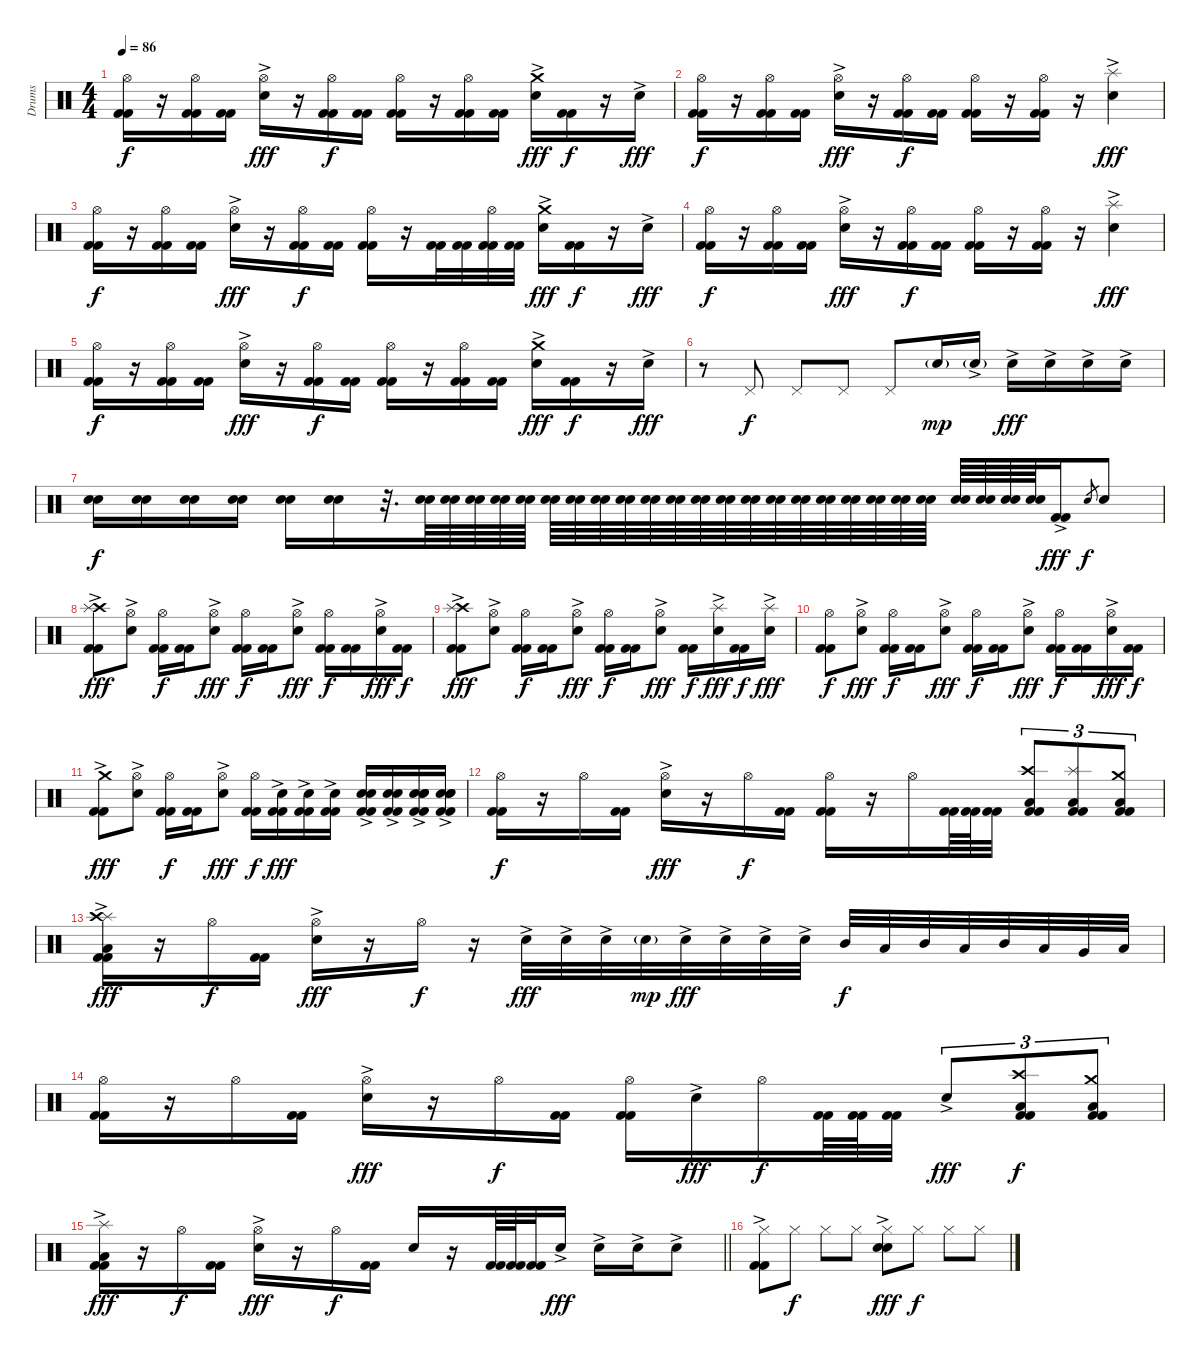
\track ("Drums" "Drums") {instrument percussion}
\staff {score}
\articulation defaults
\ts (4 4)
\tempo 86
\clef neutral
\ks c
("Hi-Hat (open)" "Kick (hit) 2" "Kick (hit) 2").16{dy f} r.16 ("Hi-Hat (open)" "Kick (hit) 2" "Kick (hit) 2").16 ("Kick (hit) 2" "Kick (hit) 2").16 ("Hi-Hat (open)" "Electric Snare (hit)"{ac}).16{dy fff} r.16 ("Hi-Hat (open)" "Kick (hit) 2" "Kick (hit) 2").16{dy f} ("Kick (hit) 2" "Kick (hit) 2").16 ("Hi-Hat (open)" "Kick (hit) 2" "Kick (hit) 2").16 r.16 ("Hi-Hat (open)" "Kick (hit) 2" "Kick (hit) 2").16 ("Kick (hit) 2" "Kick (hit) 2").16 ("Crash medium (hit)"{ac} "Electric Snare (hit)"{ac}).16{dy fff} ("Kick (hit) 2" "Kick (hit) 2").16{dy f} r.16 "Electric Snare (hit)"{ac}.16{dy fff} |
("Hi-Hat (open)" "Kick (hit) 2" "Kick (hit) 2").16{dy f} r.16 ("Hi-Hat (open)" "Kick (hit) 2" "Kick (hit) 2").16 ("Kick (hit) 2" "Kick (hit) 2").16 ("Hi-Hat (open)" "Electric Snare (hit)"{ac}).16{dy fff} r.16 ("Hi-Hat (open)" "Kick (hit) 2" "Kick (hit) 2").16{dy f} ("Kick (hit) 2" "Kick (hit) 2").16 ("Hi-Hat (open)" "Kick (hit) 2" "Kick (hit) 2").16 r.16 ("Hi-Hat (open)" "Kick (hit) 2" "Kick (hit) 2").16 r.16 ("Splash (hit)"{ac} "Electric Snare (hit)"{ac}).4{dy fff} |
("Hi-Hat (open)" "Kick (hit) 2" "Kick (hit) 2").16{dy f} r.16 ("Hi-Hat (open)" "Kick (hit) 2" "Kick (hit) 2").16 ("Kick (hit) 2" "Kick (hit) 2").16 ("Hi-Hat (open)" "Electric Snare (hit)"{ac}).16{dy fff} r.16 ("Hi-Hat (open)" "Kick (hit) 2" "Kick (hit) 2").16{dy f} ("Kick (hit) 2" "Kick (hit) 2").16 ("Hi-Hat (open)" "Kick (hit) 2" "Kick (hit) 2").16 r.16 ("Kick (hit) 2" "Kick (hit) 2").32 ("Kick (hit) 2" "Kick (hit) 2").32 ("Hi-Hat (open)" "Kick (hit) 2" "Kick (hit) 2").32 ("Kick (hit) 2" "Kick (hit) 2").32 ("Crash medium (hit)"{ac} "Electric Snare (hit)"{ac}).16{dy fff} ("Kick (hit) 2" "Kick (hit) 2").16{dy f} r.16 "Electric Snare (hit)"{ac}.16{dy fff} |
("Hi-Hat (open)" "Kick (hit) 2" "Kick (hit) 2").16{dy f} r.16 ("Hi-Hat (open)" "Kick (hit) 2" "Kick (hit) 2").16 ("Kick (hit) 2" "Kick (hit) 2").16 ("Hi-Hat (open)" "Electric Snare (hit)"{ac}).16{dy fff} r.16 ("Hi-Hat (open)" "Kick (hit) 2" "Kick (hit) 2").16{dy f} ("Kick (hit) 2" "Kick (hit) 2").16 ("Hi-Hat (open)" "Kick (hit) 2" "Kick (hit) 2").16 r.16 ("Hi-Hat (open)" "Kick (hit) 2" "Kick (hit) 2").16 r.16 ("Splash (hit)"{ac} "Electric Snare (hit)"{ac}).4{dy fff} |
("Hi-Hat (open)" "Kick (hit) 2" "Kick (hit) 2").16{dy f} r.16 ("Hi-Hat (open)" "Kick (hit) 2" "Kick (hit) 2").16 ("Kick (hit) 2" "Kick (hit) 2").16 ("Hi-Hat (open)" "Electric Snare (hit)"{ac}).16{dy fff} r.16 ("Hi-Hat (open)" "Kick (hit) 2" "Kick (hit) 2").16{dy f} ("Kick (hit) 2" "Kick (hit) 2").16 ("Hi-Hat (open)" "Kick (hit) 2" "Kick (hit) 2").16 r.16 ("Hi-Hat (open)" "Kick (hit) 2" "Kick (hit) 2").16 ("Kick (hit) 2" "Kick (hit) 2").16 ("Crash medium (hit)"{ac} "Electric Snare (hit)"{ac}).16{dy fff} ("Kick (hit) 2" "Kick (hit) 2").16{dy f} r.16 "Electric Snare (hit)"{ac}.16{dy fff} |
r.8 "Pedal Hi-Hat (hit)".8{dy f} "Pedal Hi-Hat (hit)".8 "Pedal Hi-Hat (hit)".8 "Pedal Hi-Hat (hit)".8 "Electric Snare (hit)"{g}.16{dy mp} "Electric Snare (hit)"{g ac}.16 "Electric Snare (hit)"{ac}.16{dy fff} "Electric Snare (hit)"{ac}.16 "Electric Snare (hit)"{ac}.16 "Electric Snare (hit)"{ac}.16 |
("Electric Snare (hit)" "Electric Snare (hit)").16{dy f} ("Electric Snare (hit)" "Electric Snare (hit)").16 ("Electric Snare (hit)" "Electric Snare (hit)").16 ("Electric Snare (hit)" "Electric Snare (hit)").16 ("Electric Snare (hit)" "Electric Snare (hit)").16 ("Electric Snare (hit)" "Electric Snare (hit)").16 r.32{d} ("Electric Snare (hit)" "Electric Snare (hit)").64 ("Electric Snare (hit)" "Electric Snare (hit)").64 ("Electric Snare (hit)" "Electric Snare (hit)").64 ("Electric Snare (hit)" "Electric Snare (hit)").64 ("Electric Snare (hit)" "Electric Snare (hit)").64 ("Electric Snare (hit)" "Electric Snare (hit)").64 ("Electric Snare (hit)" "Electric Snare (hit)").64 ("Electric Snare (hit)" "Electric Snare (hit)").64 ("Electric Snare (hit)" "Electric Snare (hit)").64 ("Electric Snare (hit)" "Electric Snare (hit)").64 ("Electric Snare (hit)" "Electric Snare (hit)").64 ("Electric Snare (hit)" "Electric Snare (hit)").64 ("Electric Snare (hit)" "Electric Snare (hit)").64 ("Electric Snare (hit)" "Electric Snare (hit)").64 ("Electric Snare (hit)" "Electric Snare (hit)").64 ("Electric Snare (hit)" "Electric Snare (hit)").64 ("Electric Snare (hit)" "Electric Snare (hit)").64 ("Electric Snare (hit)" "Electric Snare (hit)").64 ("Electric Snare (hit)" "Electric Snare (hit)").64 ("Electric Snare (hit)" "Electric Snare (hit)").64 ("Electric Snare (hit)" "Electric Snare (hit)").64 ("Electric Snare (hit)" "Electric Snare (hit)").64 ("Electric Snare (hit)" "Electric Snare (hit)").64 ("Electric Snare (hit)" "Electric Snare (hit)").64 ("Electric Snare (hit)" "Electric Snare (hit)").64 ("Kick (hit) 2"{ac} "Kick (hit) 2").16{dy fff} "Electric Snare (hit)".8{gr dy f} "Electric Snare (hit)".8 |
("Crash high (hit)"{ac} "Splash (hit)" "Kick (hit) 2" "Kick (hit) 2").8{dy fff} ("Hi-Hat (open)" "Electric Snare (hit)"{ac}).8 ("Hi-Hat (open)" "Kick (hit) 2" "Kick (hit) 2").16{dy f} ("Kick (hit) 2" "Kick (hit) 2").16 ("Hi-Hat (open)" "Electric Snare (hit)"{ac}).8{dy fff} ("Hi-Hat (open)" "Kick (hit) 2" "Kick (hit) 2").16{dy f} ("Kick (hit) 2" "Kick (hit) 2").16 ("Hi-Hat (open)" "Electric Snare (hit)"{ac}).8{dy fff} ("Hi-Hat (open)" "Kick (hit) 2" "Kick (hit) 2").16{dy f} ("Kick (hit) 2" "Kick (hit) 2").16 ("Hi-Hat (open)" "Electric Snare (hit)"{ac}).16{dy fff} ("Kick (hit) 2" "Kick (hit) 2").16{dy f} |
("Crash high (hit)"{ac} "Splash (hit)" "Kick (hit) 2" "Kick (hit) 2").8{dy fff} ("Hi-Hat (open)" "Electric Snare (hit)"{ac}).8 ("Hi-Hat (open)" "Kick (hit) 2" "Kick (hit) 2").16{dy f} ("Kick (hit) 2" "Kick (hit) 2").16 ("Hi-Hat (open)" "Electric Snare (hit)"{ac}).8{dy fff} ("Hi-Hat (open)" "Kick (hit) 2" "Kick (hit) 2").16{dy f} ("Kick (hit) 2" "Kick (hit) 2").16 ("Hi-Hat (open)" "Electric Snare (hit)"{ac}).8{dy fff} ("Kick (hit) 2" "Kick (hit) 2").16{dy f} ("Splash (hit)" "Electric Snare (hit)"{ac}).16{dy fff} ("Kick (hit) 2" "Kick (hit) 2").16{dy f} ("Splash (hit)" "Electric Snare (hit)"{ac}).16{dy fff} |
("Hi-Hat (open)" "Kick (hit) 2" "Kick (hit) 2").8{dy f} ("Hi-Hat (open)" "Electric Snare (hit)"{ac}).8{dy fff} ("Hi-Hat (open)" "Kick (hit) 2" "Kick (hit) 2").16{dy f} ("Kick (hit) 2" "Kick (hit) 2").16 ("Hi-Hat (open)" "Electric Snare (hit)"{ac}).8{dy fff} ("Hi-Hat (open)" "Kick (hit) 2" "Kick (hit) 2").16{dy f} ("Kick (hit) 2" "Kick (hit) 2").16 ("Hi-Hat (open)" "Electric Snare (hit)"{ac}).8{dy fff} ("Hi-Hat (open)" "Kick (hit) 2" "Kick (hit) 2").16{dy f} ("Kick (hit) 2" "Kick (hit) 2").16 ("Hi-Hat (open)" "Electric Snare (hit)"{ac}).16{dy fff} ("Kick (hit) 2" "Kick (hit) 2").16{dy f} |
("Crash medium (hit)"{ac} "Kick (hit) 2" "Kick (hit) 2").8{dy fff} ("Hi-Hat (open)" "Electric Snare (hit)"{ac}).8 ("Hi-Hat (open)" "Kick (hit) 2" "Kick (hit) 2").16{dy f} ("Kick (hit) 2" "Kick (hit) 2").16 ("Hi-Hat (open)" "Electric Snare (hit)"{ac}).8{dy fff} ("Hi-Hat (open)" "Kick (hit) 2" "Kick (hit) 2").16{dy f} ("Electric Snare (hit)"{ac} "Kick (hit) 2" "Kick (hit) 2").16{dy fff} ("Electric Snare (hit)"{ac} "Kick (hit) 2" "Kick (hit) 2").16 ("Electric Snare (hit)"{ac} "Kick (hit) 2" "Kick (hit) 2").16 ("Electric Snare (hit)"{ac} "Electric Snare (hit)" "Kick (hit) 2" "Kick (hit) 2").16 ("Electric Snare (hit)"{ac} "Electric Snare (hit)" "Kick (hit) 2" "Kick (hit) 2").16 ("Electric Snare (hit)"{ac} "Electric Snare (hit)" "Electric Snare (hit)" "Kick (hit) 2"{ac} "Kick (hit) 2").16 ("Electric Snare (hit)"{ac} "Electric Snare (hit)"{ac} "Electric Snare (hit)" "Kick (hit) 2"{ac} "Kick (hit) 2").16 |
("Hi-Hat (open)" "Kick (hit) 2" "Kick (hit) 2").16{dy f} r.16 "Hi-Hat (open)".16 ("Kick (hit) 2" "Kick (hit) 2").16 ("Hi-Hat (open)" "Electric Snare (hit)"{ac}).16{dy fff} r.16 "Hi-Hat (open)".16{dy f} ("Kick (hit) 2" "Kick (hit) 2").16 ("Hi-Hat (open)" "Kick (hit) 2" "Kick (hit) 2").16 r.16 "Hi-Hat (open)".16 ("Kick (hit) 2" "Kick (hit) 2").64 ("Kick (hit) 2" "Kick (hit) 2").64 ("Kick (hit) 2" "Kick (hit) 2").32 ("Crash high (hit)" "Low Floor Tom (hit)" "Kick (hit) 2" "Kick (hit) 2").8{tu (3 2)} ("Splash (hit)" "Low Floor Tom (hit)" "Kick (hit) 2" "Kick (hit) 2").8{tu (3 2)} ("Crash medium (hit)" "Low Floor Tom (hit)" "Kick (hit) 2" "Kick (hit) 2").8{tu (3 2)} |
("Splash (hit)" "Crash high (hit)" "Low Floor Tom (hit)" "Kick (hit) 2" "Kick (hit) 2"{ac}).16{dy fff} r.16 "Hi-Hat (open)".16{dy f} ("Kick (hit) 2" "Kick (hit) 2").16 ("Hi-Hat (open)" "Electric Snare (hit)"{ac}).16{dy fff} r.16 "Hi-Hat (open)".16{dy f} r.16 "Electric Snare (hit)"{ac}.32{dy fff} "Electric Snare (hit)"{ac}.32 "Electric Snare (hit)"{ac}.32 "Electric Snare (hit)"{g}.32{dy mp} "Electric Snare (hit)"{ac}.32{dy fff} "Electric Snare (hit)"{ac}.32 "Electric Snare (hit)"{ac}.32 "Electric Snare (hit)"{ac}.32 "Mid Tom (hit)".32{dy f} "Low Tom (hit)".32 "Mid Tom (hit)".32 "Low Tom (hit)".32 "Mid Tom (hit)".32 "Low Tom (hit)".32 "Very Low Tom (hit)".32 "Low Tom (hit)".32 |
("Hi-Hat (open)" "Kick (hit) 2" "Kick (hit) 2").16 r.16 "Hi-Hat (open)".16 ("Kick (hit) 2" "Kick (hit) 2").16 ("Hi-Hat (open)" "Electric Snare (hit)"{ac}).16{dy fff} r.16 "Hi-Hat (open)".16{dy f} ("Kick (hit) 2" "Kick (hit) 2").16 ("Hi-Hat (open)" "Kick (hit) 2" "Kick (hit) 2").16 "Electric Snare (hit)"{ac}.16{dy fff} "Hi-Hat (open)".16{dy f} ("Kick (hit) 2" "Kick (hit) 2").64 ("Kick (hit) 2" "Kick (hit) 2").64 ("Kick (hit) 2" "Kick (hit) 2").32 "Electric Snare (hit)"{ac}.8{tu (3 2) dy fff} ("Crash high (hit)" "Low Floor Tom (hit)" "Kick (hit) 2" "Kick (hit) 2").8{tu (3 2) dy f} ("Crash medium (hit)" "Low Floor Tom (hit)" "Kick (hit) 2" "Kick (hit) 2").8{tu (3 2)} |
\barLineRight lightlight
("Splash (hit)"{ac} "Low Floor Tom (hit)" "Kick (hit) 2" "Kick (hit) 2").16{dy fff} r.16 "Hi-Hat (open)".16{dy f} ("Kick (hit) 2" "Kick (hit) 2").16 ("Hi-Hat (open)" "Electric Snare (hit)"{ac}).16{dy fff} r.16 "Hi-Hat (open)".16{dy f} ("Kick (hit) 2" "Kick (hit) 2").16 "Electric Snare (hit)".16 r.16 ("Kick (hit) 2" "Kick (hit) 2").64 ("Kick (hit) 2" "Kick (hit) 2").64 ("Kick (hit) 2" "Kick (hit) 2").32 "Electric Snare (hit)"{ac}.16{dy fff} "Electric Snare (hit)"{ac}.16 "Electric Snare (hit)"{ac}.16 "Electric Snare (hit)"{ac}.8 |
("Hi-Hat (closed)" "Kick (hit) 2"{ac} "Kick (hit) 2"{ac}).8 "Hi-Hat (closed)".8{dy f} "Hi-Hat (closed)".8 "Hi-Hat (closed)".8 ("Hi-Hat (closed)" "Electric Snare (hit)"{ac} "Electric Snare (hit)").8{dy fff} "Hi-Hat (closed)".8{dy f} "Hi-Hat (closed)".8 "Hi-Hat (closed)".8
